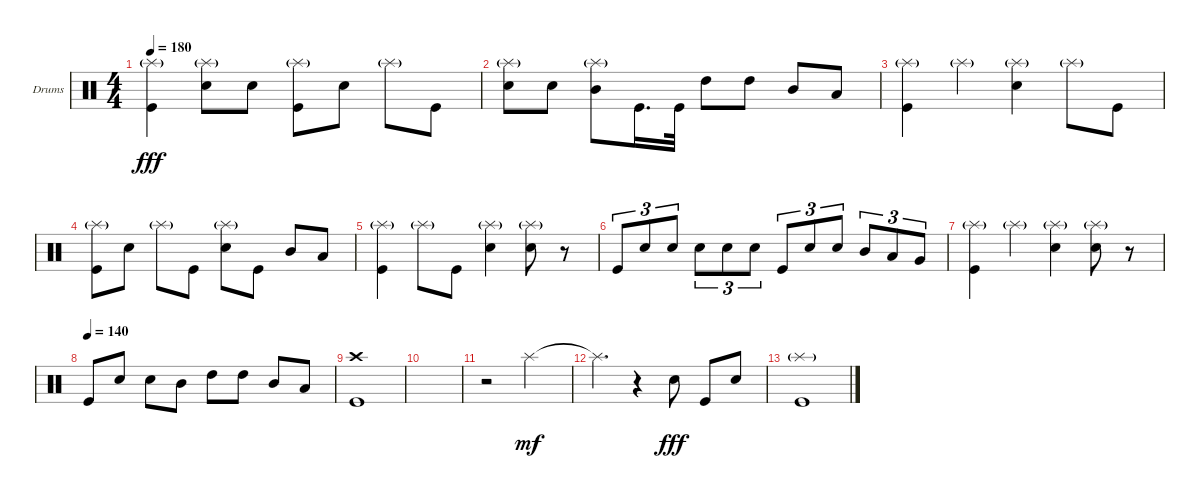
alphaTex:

\bracketExtendMode groupsimilarinstruments
\firstSystemTrackNameOrientation horizontal
\otherSystemsTrackNameOrientation horizontal
\track ("Drumkit" "Drums") {instrument percussion}
\staff {score}
\articulation defaults
\ts (4 4)
\tempo 180
\clef neutral
\scale
0.333333
\ks c
("Kick (hit)" "Splash (hit)"{g}).4{dy fff} ("Snare (hit) 2" "Splash (hit)"{g}).8 "Snare (hit) 2".8 ("Kick (hit)" "Splash (hit)"{g}).8 "Snare (hit) 2".8 "Splash (hit)"{g}.8 "Kick (hit)".8 |
\scale
0.333333 ("Snare (hit) 2" "Splash (hit)"{g}).8 "Snare (hit) 2".8 ("Mid Tom (hit)" "Splash (hit)"{g}).8 "Kick (hit)".16{d} "Kick (hit)".32 "High Tom (hit)".8 "High Tom (hit)".8 "Mid Tom (hit)".8 "Low Tom (hit)".8 |
\scale
0.333333 ("Kick (hit)" "Splash (hit)"{g}).4 "Splash (hit)"{g}.4 ("Snare (hit) 2" "Splash (hit)"{g}).4 "Splash (hit)"{g}.8 "Kick (hit)".8 |
\scale
0.333333 ("Kick (hit)" "Splash (hit)"{g}).8 "Snare (hit) 2".8 "Splash (hit)"{g}.8 "Kick (hit)".8 ("Snare (hit) 2" "Splash (hit)"{g}).8 "Kick (hit)".8 "Mid Tom (hit)".8 "Low Tom (hit)".8 |
\scale
0.333333 ("Kick (hit)" "Splash (hit)"{g}).4 "Splash (hit)"{g}.8 "Kick (hit)".8 ("Snare (hit) 2" "Splash (hit)"{g}).4 ("Snare (hit) 2" "Splash (hit)"{g}).8 r.8 |
\scale
0.333333 "Kick (hit)".8{tu (3 2)} "Snare (hit) 2".8{tu (3 2)} "Snare (hit) 2".8{tu (3 2)} "Snare (hit) 2".8{tu (3 2)} "Snare (hit) 2".8{tu (3 2)} "Snare (hit) 2".8{tu (3 2)} "Kick (hit)".8{tu (3 2)} "Snare (hit) 2".8{tu (3 2)} "Snare (hit) 2".8{tu (3 2)} "Mid Tom (hit)".8{tu (3 2)} "Low Tom (hit)".8{tu (3 2)} "Very Low Tom (hit)".8{tu (3 2)} |
\scale
0.333333 ("Kick (hit)" "Splash (hit)"{g}).4 "Splash (hit)"{g}.4 ("Snare (hit) 2" "Splash (hit)"{g}).4 ("Snare (hit) 2" "Splash (hit)"{g}).8 r.8 |
\tempo (140)
"Kick (hit)".8 "Snare (hit) 2".8 "Snare (hit) 2".8 "Mid Tom (hit)".8 "High Tom (hit)".8 "High Tom (hit)".8 "Mid Tom (hit)".8 "Low Tom (hit)".8 |
("Kick (hit)" "Crash high (hit)").1 |
|
r.2 "Splash (hit)".2{dy mf} |
"Splash (hit)"{t}.4{d} r.4 "Snare (hit) 2".8{dy fff} "Kick (hit)".8 "Snare (hit) 2".8 |
("Kick (hit)" "Splash (hit)"{g}).1
